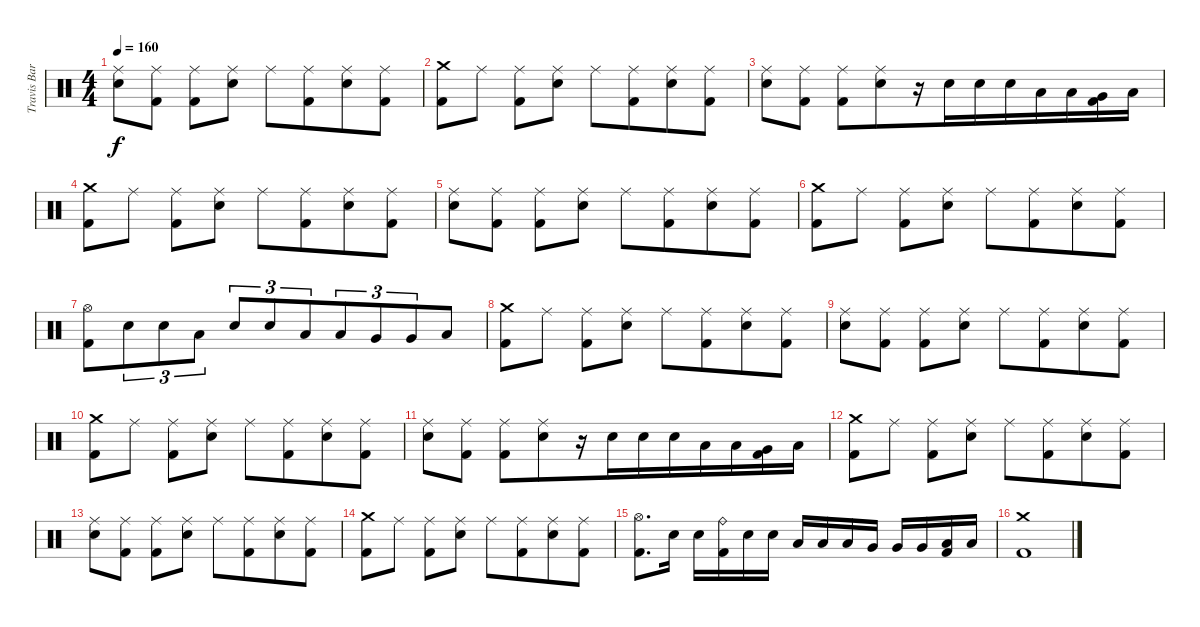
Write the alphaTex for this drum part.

\track ("Travis Barker - Drums" "Travis Bar") {instrument percussion}
\staff {score}
\articulation defaults
\ts (4 4)
\tempo 160
\clef neutral
\ks c
("Ride (middle)" "Electric Snare (hit)").8{dy f beam merge} ("Ride (middle)" "Kick (hit) 2").8 ("Ride (middle)" "Kick (hit) 2").8 ("Ride (middle)" "Electric Snare (hit)").8 "Ride (middle)".8{beam merge} ("Ride (middle)" "Kick (hit) 2").8{beam merge} ("Ride (middle)" "Electric Snare (hit)").8{beam merge} ("Ride (middle)" "Kick (hit) 2").8 |
("Crash medium (hit)" "Kick (hit) 2").8{beam merge} "Ride (middle)".8 ("Ride (middle)" "Kick (hit) 2").8 ("Ride (middle)" "Electric Snare (hit)").8 "Ride (middle)".8{beam merge} ("Ride (middle)" "Kick (hit) 2").8{beam merge} ("Ride (middle)" "Electric Snare (hit)").8{beam merge} ("Ride (middle)" "Kick (hit) 2").8 |
("Ride (middle)" "Electric Snare (hit)").8{beam merge} ("Ride (middle)" "Kick (hit) 2").8 ("Ride (middle)" "Kick (hit) 2").8 ("Ride (middle)" "Electric Snare (hit)").8{beam merge} r.16 "Electric Snare (hit)".16{beam merge} "Electric Snare (hit)".16{beam merge} "Electric Snare (hit)".16{beam merge} "Low Tom (hit)".16{beam merge} "Low Tom (hit)".16{beam merge} ("Very Low Tom (hit)" "Kick (hit) 2").16 "Low Floor Tom (hit)".16 |
("Crash medium (hit)" "Kick (hit) 2").8{beam merge} "Ride (middle)".8 ("Ride (middle)" "Kick (hit) 2").8 ("Ride (middle)" "Electric Snare (hit)").8 "Ride (middle)".8{beam merge} ("Ride (middle)" "Kick (hit) 2").8{beam merge} ("Ride (middle)" "Electric Snare (hit)").8{beam merge} ("Ride (middle)" "Kick (hit) 2").8 |
("Ride (middle)" "Electric Snare (hit)").8{beam merge} ("Ride (middle)" "Kick (hit) 2").8 ("Ride (middle)" "Kick (hit) 2").8 ("Ride (middle)" "Electric Snare (hit)").8 "Ride (middle)".8{beam merge} ("Ride (middle)" "Kick (hit) 2").8{beam merge} ("Ride (middle)" "Electric Snare (hit)").8{beam merge} ("Ride (middle)" "Kick (hit) 2").8 |
("Crash medium (hit)" "Kick (hit) 2").8{beam merge} "Ride (middle)".8 ("Ride (middle)" "Kick (hit) 2").8 ("Ride (middle)" "Electric Snare (hit)").8 "Ride (middle)".8{beam merge} ("Ride (middle)" "Kick (hit) 2").8{beam merge} ("Ride (middle)" "Electric Snare (hit)").8{beam merge} ("Ride (middle)" "Kick (hit) 2").8 |
("Hi-Hat (open)" "Kick (hit) 2").8{beam merge} "Electric Snare (hit)".8{tu (3 2) beam merge} "Electric Snare (hit)".8{tu (3 2)} "Low Tom (hit)".8{tu (3 2)} "Electric Snare (hit)".8{tu (3 2)} "Electric Snare (hit)".8{tu (3 2) beam merge} "Low Tom (hit)".8{tu (3 2) beam merge} "Low Tom (hit)".8{tu (3 2)} "Very Low Tom (hit)".8{tu (3 2) beam merge} "Very Low Tom (hit)".8{tu (3 2) beam merge} "Low Floor Tom (hit)".8 |
("Crash medium (hit)" "Kick (hit) 2").8{beam merge} "Ride (middle)".8 ("Ride (middle)" "Kick (hit) 2").8 ("Ride (middle)" "Electric Snare (hit)").8 "Ride (middle)".8{beam merge} ("Ride (middle)" "Kick (hit) 2").8{beam merge} ("Ride (middle)" "Electric Snare (hit)").8{beam merge} ("Ride (middle)" "Kick (hit) 2").8 |
("Ride (middle)" "Electric Snare (hit)").8{beam merge} ("Ride (middle)" "Kick (hit) 2").8 ("Ride (middle)" "Kick (hit) 2").8 ("Ride (middle)" "Electric Snare (hit)").8 "Ride (middle)".8{beam merge} ("Ride (middle)" "Kick (hit) 2").8{beam merge} ("Ride (middle)" "Electric Snare (hit)").8{beam merge} ("Ride (middle)" "Kick (hit) 2").8 |
("Crash medium (hit)" "Kick (hit) 2").8{beam merge} "Ride (middle)".8 ("Ride (middle)" "Kick (hit) 2").8 ("Ride (middle)" "Electric Snare (hit)").8 "Ride (middle)".8{beam merge} ("Ride (middle)" "Kick (hit) 2").8{beam merge} ("Ride (middle)" "Electric Snare (hit)").8{beam merge} ("Ride (middle)" "Kick (hit) 2").8 |
("Ride (middle)" "Electric Snare (hit)").8{beam merge} ("Ride (middle)" "Kick (hit) 2").8 ("Ride (middle)" "Kick (hit) 2").8 ("Ride (middle)" "Electric Snare (hit)").8{beam merge} r.16 "Electric Snare (hit)".16{beam merge} "Electric Snare (hit)".16{beam merge} "Electric Snare (hit)".16{beam merge} "Low Tom (hit)".16{beam merge} "Low Tom (hit)".16{beam merge} ("Very Low Tom (hit)" "Kick (hit) 2").16 "Low Floor Tom (hit)".16 |
("Crash medium (hit)" "Kick (hit) 2").8{beam merge} "Ride (middle)".8 ("Ride (middle)" "Kick (hit) 2").8 ("Ride (middle)" "Electric Snare (hit)").8 "Ride (middle)".8{beam merge} ("Ride (middle)" "Kick (hit) 2").8{beam merge} ("Ride (middle)" "Electric Snare (hit)").8{beam merge} ("Ride (middle)" "Kick (hit) 2").8 |
("Ride (middle)" "Electric Snare (hit)").8{beam merge} ("Ride (middle)" "Kick (hit) 2").8 ("Ride (middle)" "Kick (hit) 2").8 ("Ride (middle)" "Electric Snare (hit)").8 "Ride (middle)".8{beam merge} ("Ride (middle)" "Kick (hit) 2").8{beam merge} ("Ride (middle)" "Electric Snare (hit)").8{beam merge} ("Ride (middle)" "Kick (hit) 2").8 |
("Crash medium (hit)" "Kick (hit) 2").8{beam merge} "Ride (middle)".8 ("Ride (middle)" "Kick (hit) 2").8 ("Ride (middle)" "Electric Snare (hit)").8 "Ride (middle)".8{beam merge} ("Ride (middle)" "Kick (hit) 2").8{beam merge} ("Ride (middle)" "Electric Snare (hit)").8{beam merge} ("Ride (middle)" "Kick (hit) 2").8 |
("Hi-Hat (open)" "Kick (hit) 2").8{d} "Electric Snare (hit)".16 "Electric Snare (hit)".16{beam merge} ("Ride (bell)" "Kick (hit) 2").16 "Electric Snare (hit)".16 "Electric Snare (hit)".16 "Low Tom (hit)".16 "Low Tom (hit)".16 "Low Tom (hit)".16{beam merge} "Very Low Tom (hit)".16 "Very Low Tom (hit)".16{beam merge} "Very Low Tom (hit)".16 ("Low Floor Tom (hit)" "Kick (hit) 2").16 "Low Floor Tom (hit)".16 |
("Crash medium (hit)" "Kick (hit) 2").1
